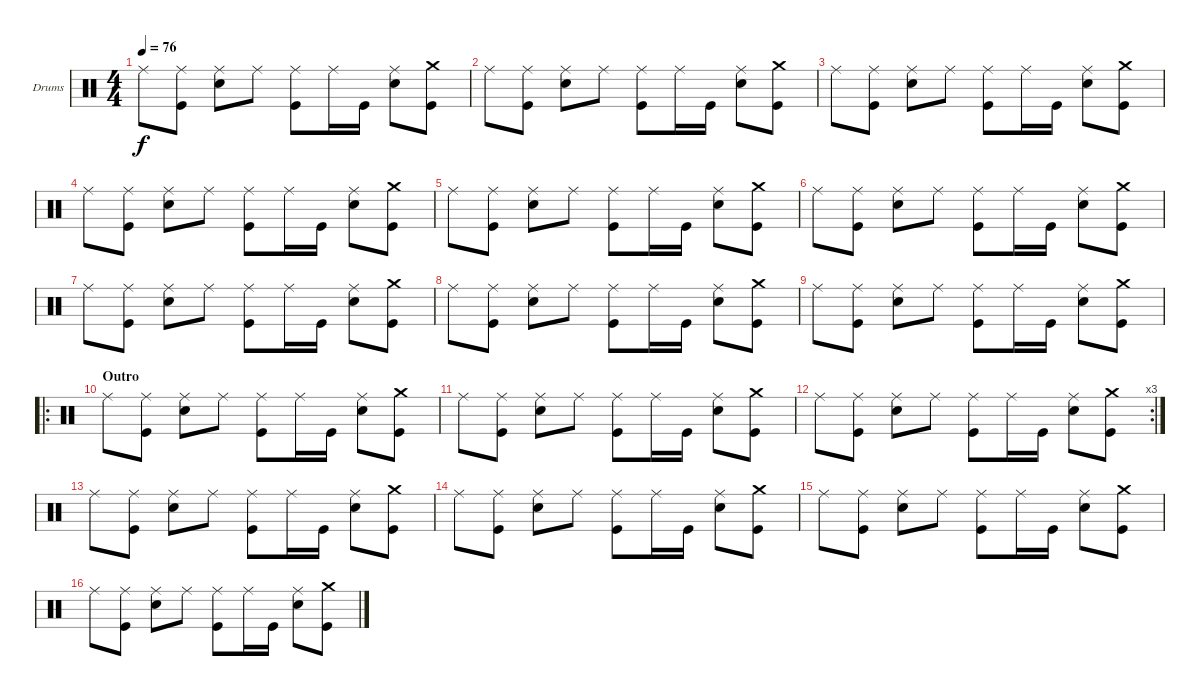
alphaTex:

\defaultSystemsLayout 4
\bracketExtendMode nobrackets
\firstSystemTrackNameOrientation horizontal
\otherSystemsTrackNameOrientation horizontal
\track ("Dave Krusen" "Drums") {instrument percussion}
\staff {score}
\articulation defaults
\ts (4 4)
\tempo 76
\clef neutral
\ks c "Ride (middle)".8{dy f}
("Kick (hit)" "Ride (middle)").8 ("Snare (hit) 2" "Ride (middle)").8 "Ride (middle)".8 ("Kick (hit)" "Ride (middle)").8 "Ride (middle)".16 "Kick (hit)".16 ("Snare (hit) 2" "Ride (middle)").8 ("Kick (hit)" "Crash medium (hit)").8 |
"Ride (middle)".8 ("Kick (hit)" "Ride (middle)").8 ("Snare (hit) 2" "Ride (middle)").8 "Ride (middle)".8 ("Kick (hit)" "Ride (middle)").8 "Ride (middle)".16 "Kick (hit)".16 ("Snare (hit) 2" "Ride (middle)").8 ("Kick (hit)" "Crash medium (hit)").8 |
"Ride (middle)".8 ("Kick (hit)" "Ride (middle)").8 ("Snare (hit) 2" "Ride (middle)").8 "Ride (middle)".8 ("Kick (hit)" "Ride (middle)").8 "Ride (middle)".16 "Kick (hit)".16 ("Snare (hit) 2" "Ride (middle)").8 ("Kick (hit)" "Crash medium (hit)").8 |
"Ride (middle)".8 ("Kick (hit)" "Ride (middle)").8 ("Snare (hit) 2" "Ride (middle)").8 "Ride (middle)".8 ("Kick (hit)" "Ride (middle)").8 "Ride (middle)".16 "Kick (hit)".16 ("Snare (hit) 2" "Ride (middle)").8 ("Kick (hit)" "Crash medium (hit)").8 |
"Ride (middle)".8 ("Kick (hit)" "Ride (middle)").8 ("Snare (hit) 2" "Ride (middle)").8 "Ride (middle)".8 ("Kick (hit)" "Ride (middle)").8 "Ride (middle)".16 "Kick (hit)".16 ("Snare (hit) 2" "Ride (middle)").8 ("Kick (hit)" "Crash medium (hit)").8 |
"Ride (middle)".8 ("Kick (hit)" "Ride (middle)").8 ("Snare (hit) 2" "Ride (middle)").8 "Ride (middle)".8 ("Kick (hit)" "Ride (middle)").8 "Ride (middle)".16 "Kick (hit)".16 ("Snare (hit) 2" "Ride (middle)").8 ("Kick (hit)" "Crash medium (hit)").8 |
"Ride (middle)".8 ("Kick (hit)" "Ride (middle)").8 ("Snare (hit) 2" "Ride (middle)").8 "Ride (middle)".8 ("Kick (hit)" "Ride (middle)").8 "Ride (middle)".16 "Kick (hit)".16 ("Snare (hit) 2" "Ride (middle)").8 ("Kick (hit)" "Crash medium (hit)").8 |
"Ride (middle)".8 ("Kick (hit)" "Ride (middle)").8 ("Snare (hit) 2" "Ride (middle)").8 "Ride (middle)".8 ("Kick (hit)" "Ride (middle)").8 "Ride (middle)".16 "Kick (hit)".16 ("Snare (hit) 2" "Ride (middle)").8 ("Kick (hit)" "Crash medium (hit)").8 |
"Ride (middle)".8 ("Kick (hit)" "Ride (middle)").8 ("Snare (hit) 2" "Ride (middle)").8 "Ride (middle)".8 ("Kick (hit)" "Ride (middle)").8 "Ride (middle)".16 "Kick (hit)".16 ("Snare (hit) 2" "Ride (middle)").8 ("Kick (hit)" "Crash medium (hit)").8 |
\ro
\section ("" "Outro")
"Ride (middle)".8 ("Kick (hit)" "Ride (middle)").8 ("Snare (hit) 2" "Ride (middle)").8 "Ride (middle)".8 ("Kick (hit)" "Ride (middle)").8 "Ride (middle)".16 "Kick (hit)".16 ("Snare (hit) 2" "Ride (middle)").8 ("Kick (hit)" "Crash medium (hit)").8 |
"Ride (middle)".8 ("Kick (hit)" "Ride (middle)").8 ("Snare (hit) 2" "Ride (middle)").8 "Ride (middle)".8 ("Kick (hit)" "Ride (middle)").8 "Ride (middle)".16 "Kick (hit)".16 ("Snare (hit) 2" "Ride (middle)").8 ("Kick (hit)" "Crash medium (hit)").8 |
\rc 3 "Ride (middle)".8
("Kick (hit)" "Ride (middle)").8 ("Snare (hit) 2" "Ride (middle)").8 "Ride (middle)".8 ("Kick (hit)" "Ride (middle)").8 "Ride (middle)".16 "Kick (hit)".16 ("Snare (hit) 2" "Ride (middle)").8 ("Kick (hit)" "Crash medium (hit)").8 |
"Ride (middle)".8 ("Kick (hit)" "Ride (middle)").8 ("Snare (hit) 2" "Ride (middle)").8 "Ride (middle)".8 ("Kick (hit)" "Ride (middle)").8 "Ride (middle)".16 "Kick (hit)".16 ("Snare (hit) 2" "Ride (middle)").8 ("Kick (hit)" "Crash medium (hit)").8 |
"Ride (middle)".8 ("Kick (hit)" "Ride (middle)").8 ("Snare (hit) 2" "Ride (middle)").8 "Ride (middle)".8 ("Kick (hit)" "Ride (middle)").8 "Ride (middle)".16 "Kick (hit)".16 ("Snare (hit) 2" "Ride (middle)").8 ("Kick (hit)" "Crash medium (hit)").8 |
"Ride (middle)".8 ("Kick (hit)" "Ride (middle)").8 ("Snare (hit) 2" "Ride (middle)").8 "Ride (middle)".8 ("Kick (hit)" "Ride (middle)").8 "Ride (middle)".16 "Kick (hit)".16 ("Snare (hit) 2" "Ride (middle)").8 ("Kick (hit)" "Crash medium (hit)").8 |
"Ride (middle)".8 ("Kick (hit)" "Ride (middle)").8 ("Snare (hit) 2" "Ride (middle)").8 "Ride (middle)".8 ("Kick (hit)" "Ride (middle)").8 "Ride (middle)".16 "Kick (hit)".16 ("Snare (hit) 2" "Ride (middle)").8 ("Kick (hit)" "Crash medium (hit)").8
